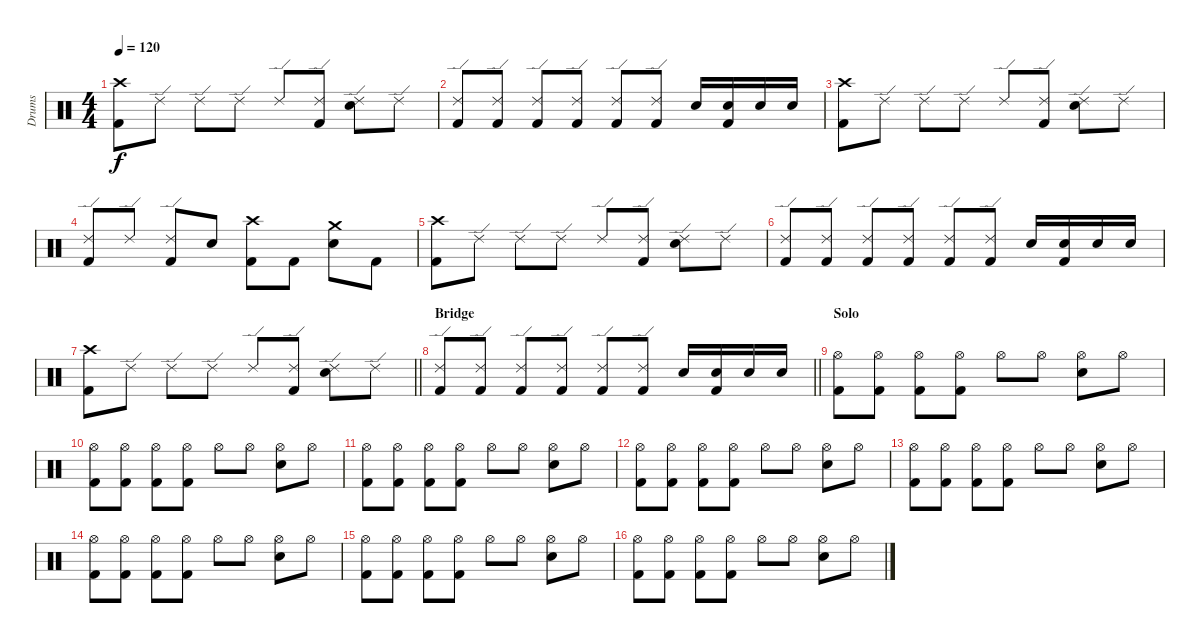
\track ("Drums" "Drums") {instrument percussion}
\staff {score}
\articulation defaults
\ts (4 4)
\tempo 120
\clef neutral
\ks c
("Crash high (hit)" "Kick (hit) 2").8{dy f} "Ride (edge) 2".8 "Ride (edge) 2".8 "Ride (edge) 2".8 "Ride (edge) 2".8 ("Ride (edge) 2" "Kick (hit) 2").8 ("Ride (edge) 2" "Snare (hit) 2").8 "Ride (edge) 2".8 |
("Ride (edge) 2" "Kick (hit) 2").8 ("Ride (edge) 2" "Kick (hit) 2").8 ("Ride (edge) 2" "Kick (hit) 2").8 ("Ride (edge) 2" "Kick (hit) 2").8 ("Ride (edge) 2" "Kick (hit) 2").8 ("Ride (edge) 2" "Kick (hit) 2").8 "Snare (hit) 2".16 ("Snare (hit) 2" "Kick (hit) 2").16 "Snare (hit) 2".16 "Snare (hit) 2".16 |
("Crash high (hit)" "Kick (hit) 2").8 "Ride (edge) 2".8 "Ride (edge) 2".8 "Ride (edge) 2".8 "Ride (edge) 2".8 ("Ride (edge) 2" "Kick (hit) 2").8 ("Ride (edge) 2" "Snare (hit) 2").8 "Ride (edge) 2".8 |
("Ride (edge) 2" "Kick (hit) 2").8 "Ride (edge) 2".8 ("Ride (edge) 2" "Kick (hit) 2").8 "Snare (hit) 2".8 ("Crash high (hit)" "Kick (hit) 2").8 "Kick (hit) 2".8 ("Crash medium (hit)" "Snare (hit) 2").8 "Kick (hit) 2".8 |
("Crash high (hit)" "Kick (hit) 2").8 "Ride (edge) 2".8 "Ride (edge) 2".8 "Ride (edge) 2".8 "Ride (edge) 2".8 ("Ride (edge) 2" "Kick (hit) 2").8 ("Ride (edge) 2" "Snare (hit) 2").8 "Ride (edge) 2".8 |
("Ride (edge) 2" "Kick (hit) 2").8 ("Ride (edge) 2" "Kick (hit) 2").8 ("Ride (edge) 2" "Kick (hit) 2").8 ("Ride (edge) 2" "Kick (hit) 2").8 ("Ride (edge) 2" "Kick (hit) 2").8 ("Ride (edge) 2" "Kick (hit) 2").8 "Snare (hit) 2".16 ("Snare (hit) 2" "Kick (hit) 2").16 "Snare (hit) 2".16 "Snare (hit) 2".16 |
\barLineRight lightlight
("Crash high (hit)" "Kick (hit) 2").8 "Ride (edge) 2".8 "Ride (edge) 2".8 "Ride (edge) 2".8 "Ride (edge) 2".8 ("Ride (edge) 2" "Kick (hit) 2").8 ("Ride (edge) 2" "Snare (hit) 2").8 "Ride (edge) 2".8 |
\section ("" "Bridge")
\barLineRight lightlight
("Ride (edge) 2" "Kick (hit) 2").8 ("Ride (edge) 2" "Kick (hit) 2").8 ("Ride (edge) 2" "Kick (hit) 2").8 ("Ride (edge) 2" "Kick (hit) 2").8 ("Ride (edge) 2" "Kick (hit) 2").8 ("Ride (edge) 2" "Kick (hit) 2").8 "Snare (hit) 2".16 ("Snare (hit) 2" "Kick (hit) 2").16 "Snare (hit) 2".16 "Snare (hit) 2".16 |
\section ("" "Solo")
("Hi-Hat (open)" "Kick (hit) 2").8 ("Hi-Hat (open)" "Kick (hit) 2").8 ("Hi-Hat (open)" "Kick (hit) 2").8 ("Hi-Hat (open)" "Kick (hit) 2").8 "Hi-Hat (open)".8 "Hi-Hat (open)".8 ("Hi-Hat (open)" "Snare (hit) 2").8 "Hi-Hat (open)".8 |
("Hi-Hat (open)" "Kick (hit) 2").8 ("Hi-Hat (open)" "Kick (hit) 2").8 ("Hi-Hat (open)" "Kick (hit) 2").8 ("Hi-Hat (open)" "Kick (hit) 2").8 "Hi-Hat (open)".8 "Hi-Hat (open)".8 ("Hi-Hat (open)" "Snare (hit) 2").8 "Hi-Hat (open)".8 |
("Hi-Hat (open)" "Kick (hit) 2").8 ("Hi-Hat (open)" "Kick (hit) 2").8 ("Hi-Hat (open)" "Kick (hit) 2").8 ("Hi-Hat (open)" "Kick (hit) 2").8 "Hi-Hat (open)".8 "Hi-Hat (open)".8 ("Hi-Hat (open)" "Snare (hit) 2").8 "Hi-Hat (open)".8 |
("Hi-Hat (open)" "Kick (hit) 2").8 ("Hi-Hat (open)" "Kick (hit) 2").8 ("Hi-Hat (open)" "Kick (hit) 2").8 ("Hi-Hat (open)" "Kick (hit) 2").8 "Hi-Hat (open)".8 "Hi-Hat (open)".8 ("Hi-Hat (open)" "Snare (hit) 2").8 "Hi-Hat (open)".8 |
("Hi-Hat (open)" "Kick (hit) 2").8 ("Hi-Hat (open)" "Kick (hit) 2").8 ("Hi-Hat (open)" "Kick (hit) 2").8 ("Hi-Hat (open)" "Kick (hit) 2").8 "Hi-Hat (open)".8 "Hi-Hat (open)".8 ("Hi-Hat (open)" "Snare (hit) 2").8 "Hi-Hat (open)".8 |
("Hi-Hat (open)" "Kick (hit) 2").8 ("Hi-Hat (open)" "Kick (hit) 2").8 ("Hi-Hat (open)" "Kick (hit) 2").8 ("Hi-Hat (open)" "Kick (hit) 2").8 "Hi-Hat (open)".8 "Hi-Hat (open)".8 ("Hi-Hat (open)" "Snare (hit) 2").8 "Hi-Hat (open)".8 |
("Hi-Hat (open)" "Kick (hit) 2").8 ("Hi-Hat (open)" "Kick (hit) 2").8 ("Hi-Hat (open)" "Kick (hit) 2").8 ("Hi-Hat (open)" "Kick (hit) 2").8 "Hi-Hat (open)".8 "Hi-Hat (open)".8 ("Hi-Hat (open)" "Snare (hit) 2").8 "Hi-Hat (open)".8 |
("Hi-Hat (open)" "Kick (hit) 2").8 ("Hi-Hat (open)" "Kick (hit) 2").8 ("Hi-Hat (open)" "Kick (hit) 2").8 ("Hi-Hat (open)" "Kick (hit) 2").8 "Hi-Hat (open)".8 "Hi-Hat (open)".8 ("Hi-Hat (open)" "Snare (hit) 2").8 "Hi-Hat (open)".8
